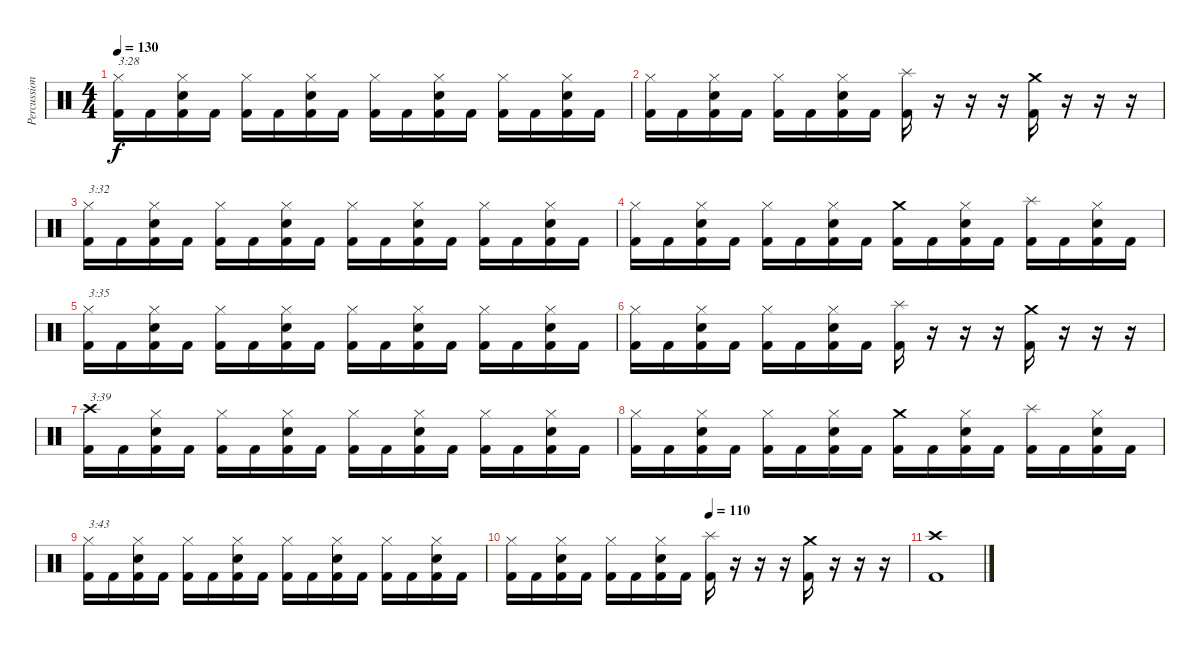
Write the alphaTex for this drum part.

\track ("Percussion" "Percussion") {instrument percussion}
\staff {score}
\articulation defaults
\ts (4 4)
\tempo 130
\clef neutral
\ks c
("Hi-Hat (closed)" "Kick (hit) 2").16{txt "3:28" dy f} "Kick (hit) 2".16 ("Hi-Hat (closed)" "Electric Snare (hit)" "Kick (hit) 2").16 "Kick (hit) 2".16 ("Hi-Hat (closed)" "Kick (hit) 2").16 "Kick (hit) 2".16 ("Hi-Hat (closed)" "Electric Snare (hit)" "Kick (hit) 2").16 "Kick (hit) 2".16 ("Hi-Hat (closed)" "Kick (hit) 2").16 "Kick (hit) 2".16 ("Hi-Hat (closed)" "Electric Snare (hit)" "Kick (hit) 2").16 "Kick (hit) 2".16 ("Hi-Hat (closed)" "Kick (hit) 2").16 "Kick (hit) 2".16 ("Hi-Hat (closed)" "Electric Snare (hit)" "Kick (hit) 2").16 "Kick (hit) 2".16 |
("Hi-Hat (closed)" "Kick (hit) 2").16 "Kick (hit) 2".16 ("Hi-Hat (closed)" "Electric Snare (hit)" "Kick (hit) 2").16 "Kick (hit) 2".16 ("Hi-Hat (closed)" "Kick (hit) 2").16 "Kick (hit) 2".16 ("Hi-Hat (closed)" "Electric Snare (hit)" "Kick (hit) 2").16 "Kick (hit) 2".16 ("Splash (hit)" "Kick (hit) 2").16 r.16 r.16 r.16 ("Crash medium (hit)" "Kick (hit) 2").16 r.16 r.16 r.16 |
("Hi-Hat (closed)" "Kick (hit) 2").16{txt "3:32"} "Kick (hit) 2".16 ("Hi-Hat (closed)" "Electric Snare (hit)" "Kick (hit) 2").16 "Kick (hit) 2".16 ("Hi-Hat (closed)" "Kick (hit) 2").16 "Kick (hit) 2".16 ("Hi-Hat (closed)" "Electric Snare (hit)" "Kick (hit) 2").16 "Kick (hit) 2".16 ("Hi-Hat (closed)" "Kick (hit) 2").16 "Kick (hit) 2".16 ("Hi-Hat (closed)" "Electric Snare (hit)" "Kick (hit) 2").16 "Kick (hit) 2".16 ("Hi-Hat (closed)" "Kick (hit) 2").16 "Kick (hit) 2".16 ("Hi-Hat (closed)" "Electric Snare (hit)" "Kick (hit) 2").16 "Kick (hit) 2".16 |
("Hi-Hat (closed)" "Kick (hit) 2").16 "Kick (hit) 2".16 ("Hi-Hat (closed)" "Electric Snare (hit)" "Kick (hit) 2").16 "Kick (hit) 2".16 ("Hi-Hat (closed)" "Kick (hit) 2").16 "Kick (hit) 2".16 ("Hi-Hat (closed)" "Electric Snare (hit)" "Kick (hit) 2").16 "Kick (hit) 2".16 ("Crash medium (hit)" "Kick (hit) 2").16 "Kick (hit) 2".16 ("Hi-Hat (closed)" "Electric Snare (hit)" "Kick (hit) 2").16 "Kick (hit) 2".16 ("Splash (hit)" "Kick (hit) 2").16 "Kick (hit) 2".16 ("Hi-Hat (closed)" "Electric Snare (hit)" "Kick (hit) 2").16 "Kick (hit) 2".16 |
("Hi-Hat (closed)" "Kick (hit) 2").16{txt "3:35"} "Kick (hit) 2".16 ("Hi-Hat (closed)" "Electric Snare (hit)" "Kick (hit) 2").16 "Kick (hit) 2".16 ("Hi-Hat (closed)" "Kick (hit) 2").16 "Kick (hit) 2".16 ("Hi-Hat (closed)" "Electric Snare (hit)" "Kick (hit) 2").16 "Kick (hit) 2".16 ("Hi-Hat (closed)" "Kick (hit) 2").16 "Kick (hit) 2".16 ("Hi-Hat (closed)" "Electric Snare (hit)" "Kick (hit) 2").16 "Kick (hit) 2".16 ("Hi-Hat (closed)" "Kick (hit) 2").16 "Kick (hit) 2".16 ("Hi-Hat (closed)" "Electric Snare (hit)" "Kick (hit) 2").16 "Kick (hit) 2".16 |
("Hi-Hat (closed)" "Kick (hit) 2").16 "Kick (hit) 2".16 ("Hi-Hat (closed)" "Electric Snare (hit)" "Kick (hit) 2").16 "Kick (hit) 2".16 ("Hi-Hat (closed)" "Kick (hit) 2").16 "Kick (hit) 2".16 ("Hi-Hat (closed)" "Electric Snare (hit)" "Kick (hit) 2").16 "Kick (hit) 2".16 ("Splash (hit)" "Kick (hit) 2").16 r.16 r.16 r.16 ("Crash medium (hit)" "Kick (hit) 2").16 r.16 r.16 r.16 |
("Crash high (hit)" "Kick (hit) 2").16{txt "3:39"} "Kick (hit) 2".16 ("Hi-Hat (closed)" "Electric Snare (hit)" "Kick (hit) 2").16 "Kick (hit) 2".16 ("Hi-Hat (closed)" "Kick (hit) 2").16 "Kick (hit) 2".16 ("Hi-Hat (closed)" "Electric Snare (hit)" "Kick (hit) 2").16 "Kick (hit) 2".16 ("Hi-Hat (closed)" "Kick (hit) 2").16 "Kick (hit) 2".16 ("Hi-Hat (closed)" "Electric Snare (hit)" "Kick (hit) 2").16 "Kick (hit) 2".16 ("Hi-Hat (closed)" "Kick (hit) 2").16 "Kick (hit) 2".16 ("Hi-Hat (closed)" "Electric Snare (hit)" "Kick (hit) 2").16 "Kick (hit) 2".16 |
("Hi-Hat (closed)" "Kick (hit) 2").16 "Kick (hit) 2".16 ("Hi-Hat (closed)" "Electric Snare (hit)" "Kick (hit) 2").16 "Kick (hit) 2".16 ("Hi-Hat (closed)" "Kick (hit) 2").16 "Kick (hit) 2".16 ("Hi-Hat (closed)" "Electric Snare (hit)" "Kick (hit) 2").16 "Kick (hit) 2".16 ("Crash medium (hit)" "Kick (hit) 2").16 "Kick (hit) 2".16 ("Hi-Hat (closed)" "Electric Snare (hit)" "Kick (hit) 2").16 "Kick (hit) 2".16 ("Splash (hit)" "Kick (hit) 2").16 "Kick (hit) 2".16 ("Hi-Hat (closed)" "Electric Snare (hit)" "Kick (hit) 2").16 "Kick (hit) 2".16 |
("Hi-Hat (closed)" "Kick (hit) 2").16{txt "3:43"} "Kick (hit) 2".16 ("Hi-Hat (closed)" "Electric Snare (hit)" "Kick (hit) 2").16 "Kick (hit) 2".16 ("Hi-Hat (closed)" "Kick (hit) 2").16 "Kick (hit) 2".16 ("Hi-Hat (closed)" "Electric Snare (hit)" "Kick (hit) 2").16 "Kick (hit) 2".16 ("Hi-Hat (closed)" "Kick (hit) 2").16 "Kick (hit) 2".16 ("Hi-Hat (closed)" "Electric Snare (hit)" "Kick (hit) 2").16 "Kick (hit) 2".16 ("Hi-Hat (closed)" "Kick (hit) 2").16 "Kick (hit) 2".16 ("Hi-Hat (closed)" "Electric Snare (hit)" "Kick (hit) 2").16 "Kick (hit) 2".16 |
\tempo (110 0.5)
("Hi-Hat (closed)" "Kick (hit) 2").16 "Kick (hit) 2".16 ("Hi-Hat (closed)" "Electric Snare (hit)" "Kick (hit) 2").16 "Kick (hit) 2".16 ("Hi-Hat (closed)" "Kick (hit) 2").16 "Kick (hit) 2".16 ("Hi-Hat (closed)" "Electric Snare (hit)" "Kick (hit) 2").16 "Kick (hit) 2".16 ("Splash (hit)" "Kick (hit) 2").16 r.16 r.16 r.16 ("Crash medium (hit)" "Kick (hit) 2").16 r.16 r.16 r.16 |
("Crash high (hit)" "Kick (hit) 2").1
